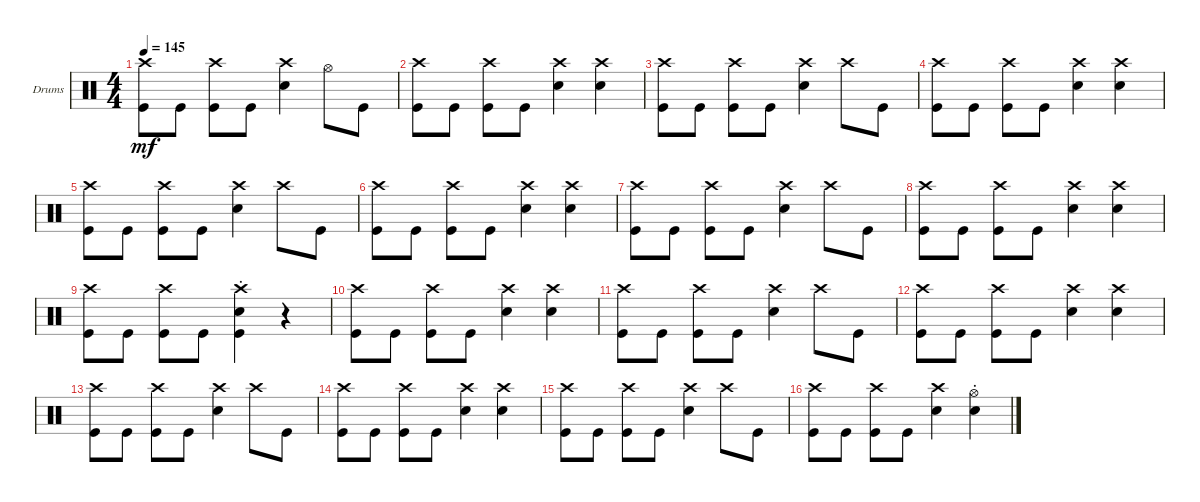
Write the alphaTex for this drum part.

\defaultSystemsLayout 4
\bracketExtendMode groupsimilarinstruments
\firstSystemTrackNameOrientation horizontal
\otherSystemsTrackNameOrientation horizontal
\track ("Matt Uychich" "Drums") {instrument percussion}
\staff {score}
\articulation defaults
\ts (4 4)
\tempo 145
\clef neutral
\scale
0.333333
\ks c
("Crash high (hit)" "Kick (hit)").8{dy mf} "Kick (hit)".8 ("Kick (hit)" "Crash high (hit)").8 "Kick (hit)".8 ("Snare (hit) 2" "Crash high (hit)").4 "Hi-Hat (open)".8 "Kick (hit)".8 |
\scale
0.333333 ("Kick (hit)" "Crash high (hit)").8 "Kick (hit)".8 ("Kick (hit)" "Crash high (hit)").8 "Kick (hit)".8 ("Crash high (hit)" "Snare (hit) 2").4 ("Crash high (hit)" "Snare (hit) 2").4 |
\scale
0.333333 ("Crash high (hit)" "Kick (hit)").8 "Kick (hit)".8 ("Kick (hit)" "Crash high (hit)").8 "Kick (hit)".8 ("Snare (hit) 2" "Crash high (hit)").4 "Crash high (hit)".8 "Kick (hit)".8 |
\scale
0.333333 ("Kick (hit)" "Crash high (hit)").8 "Kick (hit)".8 ("Kick (hit)" "Crash high (hit)").8 "Kick (hit)".8 ("Crash high (hit)" "Snare (hit) 2").4 ("Crash high (hit)" "Snare (hit) 2").4 |
\scale
0.333333 ("Crash high (hit)" "Kick (hit)").8 "Kick (hit)".8 ("Kick (hit)" "Crash high (hit)").8 "Kick (hit)".8 ("Snare (hit) 2" "Crash high (hit)").4 "Crash high (hit)".8 "Kick (hit)".8 |
\scale
0.333333 ("Kick (hit)" "Crash high (hit)").8 "Kick (hit)".8 ("Kick (hit)" "Crash high (hit)").8 "Kick (hit)".8 ("Crash high (hit)" "Snare (hit) 2").4 ("Crash high (hit)" "Snare (hit) 2").4 |
\scale
0.333333 ("Crash high (hit)" "Kick (hit)").8 "Kick (hit)".8 ("Kick (hit)" "Crash high (hit)").8 "Kick (hit)".8 ("Snare (hit) 2" "Crash high (hit)").4 "Crash high (hit)".8 "Kick (hit)".8 |
\scale
0.333333 ("Kick (hit)" "Crash high (hit)").8 "Kick (hit)".8 ("Kick (hit)" "Crash high (hit)").8 "Kick (hit)".8 ("Crash high (hit)" "Snare (hit) 2").4 ("Crash high (hit)" "Snare (hit) 2").4 |
\scale
0.333333 ("Crash high (hit)" "Kick (hit)").8 "Kick (hit)".8 ("Kick (hit)" "Crash high (hit)").8 "Kick (hit)".8 ("Snare (hit) 2" "Crash high (hit)"{st} "Kick (hit)").4 r.4 |
\scale
0.333333 ("Kick (hit)" "Crash high (hit)").8 "Kick (hit)".8 ("Kick (hit)" "Crash high (hit)").8 "Kick (hit)".8 ("Crash high (hit)" "Snare (hit) 2").4 ("Crash high (hit)" "Snare (hit) 2").4 |
\scale
0.333333 ("Crash high (hit)" "Kick (hit)").8 "Kick (hit)".8 ("Kick (hit)" "Crash high (hit)").8 "Kick (hit)".8 ("Snare (hit) 2" "Crash high (hit)").4 "Crash high (hit)".8 "Kick (hit)".8 |
\scale
0.333333 ("Kick (hit)" "Crash high (hit)").8 "Kick (hit)".8 ("Kick (hit)" "Crash high (hit)").8 "Kick (hit)".8 ("Crash high (hit)" "Snare (hit) 2").4 ("Crash high (hit)" "Snare (hit) 2").4 |
\scale
0.333333 ("Crash high (hit)" "Kick (hit)").8 "Kick (hit)".8 ("Kick (hit)" "Crash high (hit)").8 "Kick (hit)".8 ("Snare (hit) 2" "Crash high (hit)").4 "Crash high (hit)".8 "Kick (hit)".8 |
\scale
0.333333 ("Kick (hit)" "Crash high (hit)").8 "Kick (hit)".8 ("Kick (hit)" "Crash high (hit)").8 "Kick (hit)".8 ("Crash high (hit)" "Snare (hit) 2").4 ("Crash high (hit)" "Snare (hit) 2").4 |
\scale
0.333333 ("Crash high (hit)" "Kick (hit)").8 "Kick (hit)".8 ("Kick (hit)" "Crash high (hit)").8 "Kick (hit)".8 ("Snare (hit) 2" "Crash high (hit)").4 "Crash high (hit)".8 "Kick (hit)".8 |
\scale
0.333333 ("Kick (hit)" "Crash high (hit)").8 "Kick (hit)".8 ("Kick (hit)" "Crash high (hit)").8 "Kick (hit)".8 ("Crash high (hit)" "Snare (hit) 2").4 ("Snare (hit) 2" "Hi-Hat (open)"{st}).4
